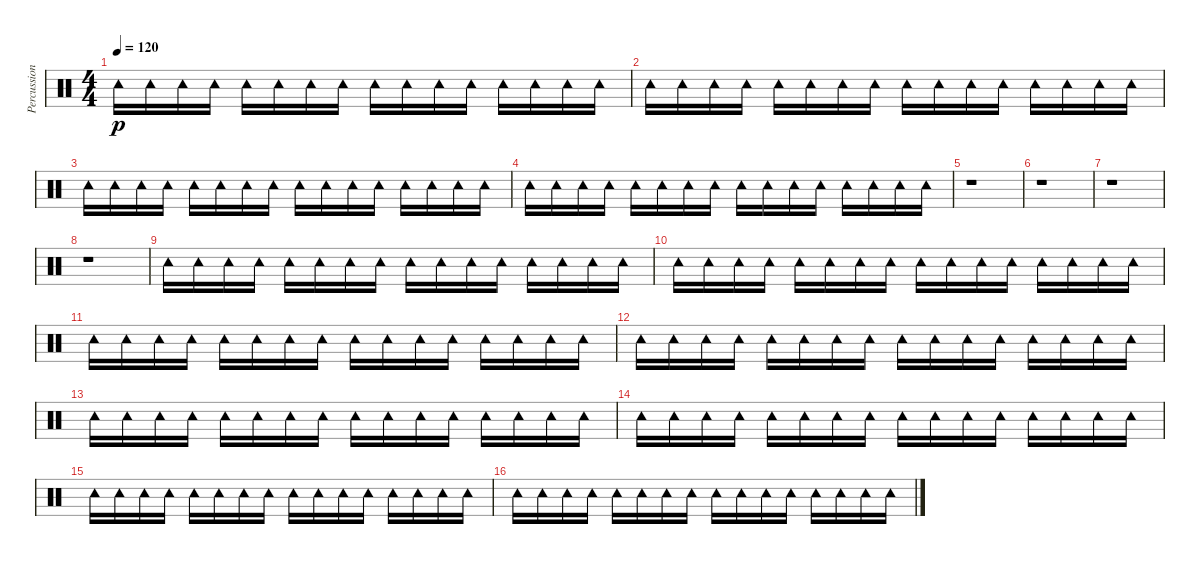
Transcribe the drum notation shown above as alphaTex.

\track ("Percussions" "Percussion") {instrument percussion}
\staff {score}
\articulation defaults
\ts (4 4)
\tempo 120
\clef neutral
\ks c "Tambourine (hit)".16{dy p} "Tambourine (hit)".16 "Tambourine (hit)".16 "Tambourine (hit)".16 "Tambourine (hit)".16 "Tambourine (hit)".16 "Tambourine (hit)".16 "Tambourine (hit)".16 "Tambourine (hit)".16 "Tambourine (hit)".16 "Tambourine (hit)".16 "Tambourine (hit)".16 "Tambourine (hit)".16 "Tambourine (hit)".16 "Tambourine (hit)".16 "Tambourine (hit)".16
|
"Tambourine (hit)".16 "Tambourine (hit)".16 "Tambourine (hit)".16 "Tambourine (hit)".16 "Tambourine (hit)".16 "Tambourine (hit)".16 "Tambourine (hit)".16 "Tambourine (hit)".16 "Tambourine (hit)".16 "Tambourine (hit)".16 "Tambourine (hit)".16 "Tambourine (hit)".16 "Tambourine (hit)".16 "Tambourine (hit)".16 "Tambourine (hit)".16 "Tambourine (hit)".16 |
"Tambourine (hit)".16 "Tambourine (hit)".16 "Tambourine (hit)".16 "Tambourine (hit)".16 "Tambourine (hit)".16 "Tambourine (hit)".16 "Tambourine (hit)".16 "Tambourine (hit)".16 "Tambourine (hit)".16 "Tambourine (hit)".16 "Tambourine (hit)".16 "Tambourine (hit)".16 "Tambourine (hit)".16 "Tambourine (hit)".16 "Tambourine (hit)".16 "Tambourine (hit)".16 |
"Tambourine (hit)".16 "Tambourine (hit)".16 "Tambourine (hit)".16 "Tambourine (hit)".16 "Tambourine (hit)".16 "Tambourine (hit)".16 "Tambourine (hit)".16 "Tambourine (hit)".16 "Tambourine (hit)".16 "Tambourine (hit)".16 "Tambourine (hit)".16 "Tambourine (hit)".16 "Tambourine (hit)".16 "Tambourine (hit)".16 "Tambourine (hit)".16 "Tambourine (hit)".16 |
r.1 |
r.1 |
r.1 |
r.1 |
"Tambourine (hit)".16 "Tambourine (hit)".16 "Tambourine (hit)".16 "Tambourine (hit)".16 "Tambourine (hit)".16 "Tambourine (hit)".16 "Tambourine (hit)".16 "Tambourine (hit)".16 "Tambourine (hit)".16 "Tambourine (hit)".16 "Tambourine (hit)".16 "Tambourine (hit)".16 "Tambourine (hit)".16 "Tambourine (hit)".16 "Tambourine (hit)".16 "Tambourine (hit)".16 |
"Tambourine (hit)".16 "Tambourine (hit)".16 "Tambourine (hit)".16 "Tambourine (hit)".16 "Tambourine (hit)".16 "Tambourine (hit)".16 "Tambourine (hit)".16 "Tambourine (hit)".16 "Tambourine (hit)".16 "Tambourine (hit)".16 "Tambourine (hit)".16 "Tambourine (hit)".16 "Tambourine (hit)".16 "Tambourine (hit)".16 "Tambourine (hit)".16 "Tambourine (hit)".16 |
"Tambourine (hit)".16 "Tambourine (hit)".16 "Tambourine (hit)".16 "Tambourine (hit)".16 "Tambourine (hit)".16 "Tambourine (hit)".16 "Tambourine (hit)".16 "Tambourine (hit)".16 "Tambourine (hit)".16 "Tambourine (hit)".16 "Tambourine (hit)".16 "Tambourine (hit)".16 "Tambourine (hit)".16 "Tambourine (hit)".16 "Tambourine (hit)".16 "Tambourine (hit)".16 |
"Tambourine (hit)".16 "Tambourine (hit)".16 "Tambourine (hit)".16 "Tambourine (hit)".16 "Tambourine (hit)".16 "Tambourine (hit)".16 "Tambourine (hit)".16 "Tambourine (hit)".16 "Tambourine (hit)".16 "Tambourine (hit)".16 "Tambourine (hit)".16 "Tambourine (hit)".16 "Tambourine (hit)".16 "Tambourine (hit)".16 "Tambourine (hit)".16 "Tambourine (hit)".16 |
"Tambourine (hit)".16 "Tambourine (hit)".16 "Tambourine (hit)".16 "Tambourine (hit)".16 "Tambourine (hit)".16 "Tambourine (hit)".16 "Tambourine (hit)".16 "Tambourine (hit)".16 "Tambourine (hit)".16 "Tambourine (hit)".16 "Tambourine (hit)".16 "Tambourine (hit)".16 "Tambourine (hit)".16 "Tambourine (hit)".16 "Tambourine (hit)".16 "Tambourine (hit)".16 |
"Tambourine (hit)".16 "Tambourine (hit)".16 "Tambourine (hit)".16 "Tambourine (hit)".16 "Tambourine (hit)".16 "Tambourine (hit)".16 "Tambourine (hit)".16 "Tambourine (hit)".16 "Tambourine (hit)".16 "Tambourine (hit)".16 "Tambourine (hit)".16 "Tambourine (hit)".16 "Tambourine (hit)".16 "Tambourine (hit)".16 "Tambourine (hit)".16 "Tambourine (hit)".16 |
"Tambourine (hit)".16 "Tambourine (hit)".16 "Tambourine (hit)".16 "Tambourine (hit)".16 "Tambourine (hit)".16 "Tambourine (hit)".16 "Tambourine (hit)".16 "Tambourine (hit)".16 "Tambourine (hit)".16 "Tambourine (hit)".16 "Tambourine (hit)".16 "Tambourine (hit)".16 "Tambourine (hit)".16 "Tambourine (hit)".16 "Tambourine (hit)".16 "Tambourine (hit)".16 |
"Tambourine (hit)".16 "Tambourine (hit)".16 "Tambourine (hit)".16 "Tambourine (hit)".16 "Tambourine (hit)".16 "Tambourine (hit)".16 "Tambourine (hit)".16 "Tambourine (hit)".16 "Tambourine (hit)".16 "Tambourine (hit)".16 "Tambourine (hit)".16 "Tambourine (hit)".16 "Tambourine (hit)".16 "Tambourine (hit)".16 "Tambourine (hit)".16 "Tambourine (hit)".16
